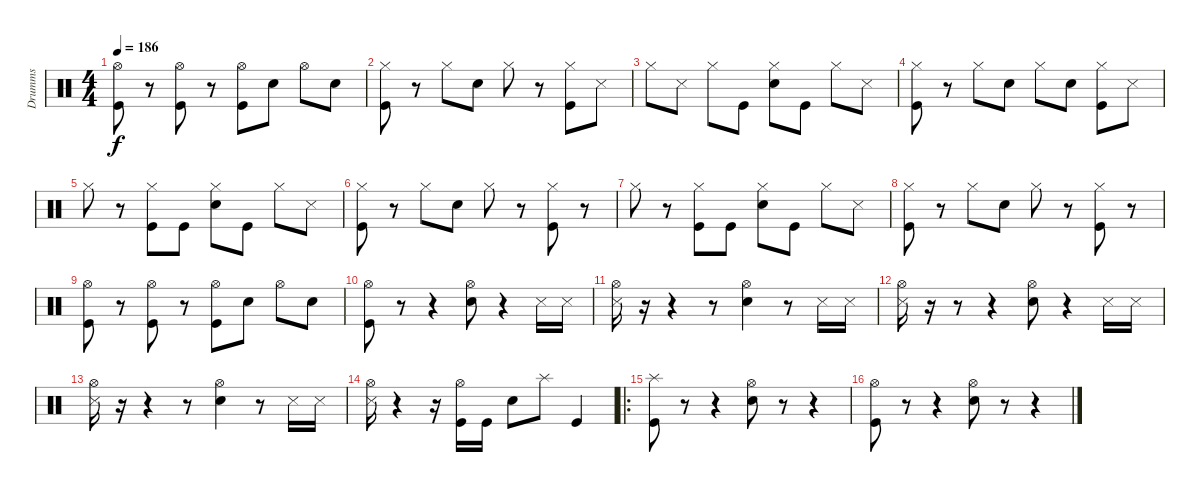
\track ("Drumms" "Drumms") {instrument percussion}
\staff {score}
\articulation defaults
\ts (4 4)
\tempo 186
\clef neutral
\ks c
("Hi-Hat (open)" "Kick (hit)").8{dy f} r.8 ("Hi-Hat (open)" "Kick (hit)").8 r.8 ("Hi-Hat (open)" "Kick (hit)").8 "Snare (hit) 2".8 "Hi-Hat (open)".8 "Snare (hit) 2".8 |
("Hi-Hat (closed)" "Kick (hit)").8 r.8 "Hi-Hat (closed)".8 "Snare (hit) 2".8 "Hi-Hat (closed)".8 r.8 ("Hi-Hat (closed)" "Kick (hit)").8 "Metronome (hit)".8 |
"Hi-Hat (closed)".8 "Metronome (hit)".8 "Hi-Hat (closed)".8 "Kick (hit)".8 ("Hi-Hat (closed)" "Snare (hit) 2").8 "Kick (hit)".8 "Hi-Hat (closed)".8 "Metronome (hit)".8 |
("Hi-Hat (closed)" "Kick (hit)").8 r.8 "Hi-Hat (closed)".8 "Snare (hit) 2".8 "Hi-Hat (closed)".8 "Snare (hit) 2".8 ("Hi-Hat (closed)" "Kick (hit)").8 "Metronome (hit)".8 |
"Hi-Hat (closed)".8 r.8 ("Hi-Hat (closed)" "Kick (hit)").8 "Kick (hit)".8 ("Hi-Hat (closed)" "Snare (hit) 2").8 "Kick (hit)".8 "Hi-Hat (closed)".8 "Metronome (hit)".8 |
("Hi-Hat (closed)" "Kick (hit)").8 r.8 "Hi-Hat (closed)".8 "Snare (hit) 2".8 "Hi-Hat (closed)".8 r.8 ("Hi-Hat (closed)" "Kick (hit)").8 r.8 |
"Hi-Hat (closed)".8 r.8 ("Hi-Hat (closed)" "Kick (hit)").8 "Kick (hit)".8 ("Hi-Hat (closed)" "Snare (hit) 2").8 "Kick (hit)".8 "Hi-Hat (closed)".8 "Metronome (hit)".8 |
("Hi-Hat (closed)" "Kick (hit)").8 r.8 "Hi-Hat (closed)".8 "Snare (hit) 2".8 "Hi-Hat (closed)".8 r.8 ("Hi-Hat (closed)" "Kick (hit)").8 r.8 |
("Hi-Hat (open)" "Kick (hit)").8 r.8 ("Hi-Hat (open)" "Kick (hit)").8 r.8 ("Hi-Hat (open)" "Kick (hit)").8 "Snare (hit) 2".8 "Hi-Hat (open)".8 "Snare (hit) 2".8 |
("Hi-Hat (open)" "Kick (hit)").8 r.8 r.4 ("Hi-Hat (open)" "Snare (hit) 2").8 r.4 "Metronome (hit)".16 "Metronome (hit)".16 |
("Hi-Hat (open)" "Metronome (hit)").16 r.16 r.4 r.8 ("Hi-Hat (open)" "Snare (hit) 2").4 r.8 "Metronome (hit)".16 "Metronome (hit)".16 |
("Hi-Hat (open)" "Metronome (hit)").16 r.16 r.8 r.4 ("Hi-Hat (open)" "Snare (hit) 2").8 r.4 "Metronome (hit)".16 "Metronome (hit)".16 |
("Hi-Hat (open)" "Metronome (hit)").16 r.16 r.4 r.8 ("Hi-Hat (open)" "Snare (hit) 2").4 r.8 "Metronome (hit)".16 "Metronome (hit)".16 |
("Hi-Hat (open)" "Metronome (hit)").16 r.4 r.16 ("Hi-Hat (open)" "Kick (hit)").16 "Kick (hit)".16 "Snare (hit) 2".8 "Splash (hit)".8 "Kick (hit)".4 |
\ro
("Splash (hit)" "Kick (hit)").8 r.8 r.4 ("Hi-Hat (open)" "Snare (hit) 2").8 r.8 r.4 |
("Hi-Hat (open)" "Kick (hit)").8 r.8 r.4 ("Hi-Hat (open)" "Snare (hit) 2").8 r.8 r.4
